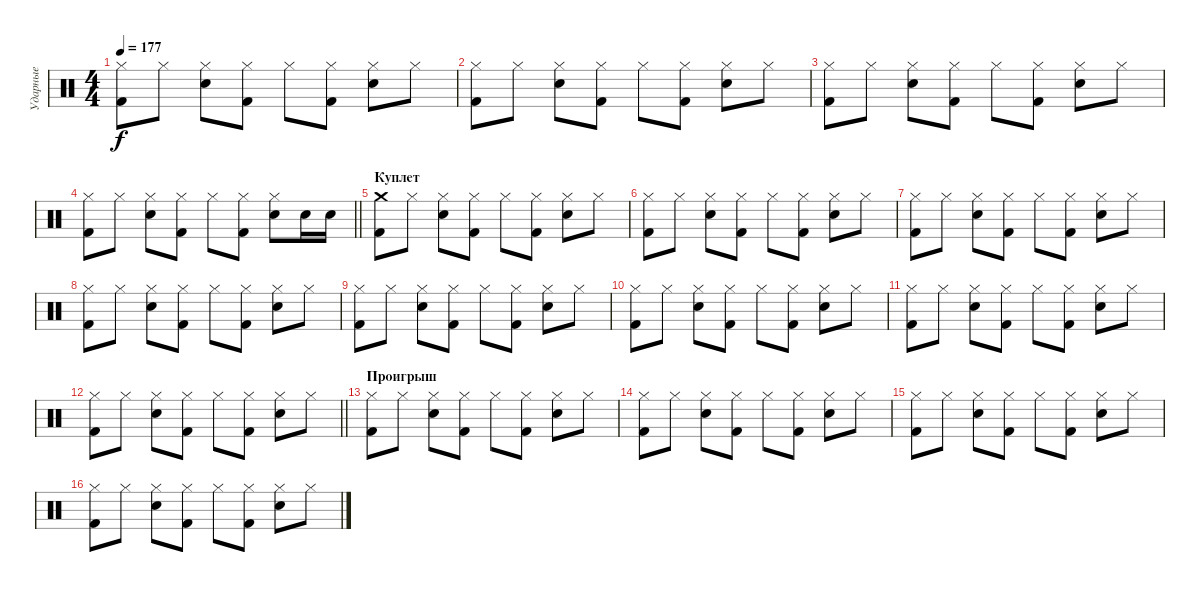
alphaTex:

\track ("Ударные" "Ударные") {instrument percussion}
\staff {score}
\articulation defaults
\ts (4 4)
\tempo 177
\clef neutral
\ks c
("Hi-Hat (closed)" "Kick (hit) 2").8{dy f} "Hi-Hat (closed)".8 ("Hi-Hat (closed)" "Snare (hit) 2").8 ("Hi-Hat (closed)" "Kick (hit) 2").8 "Hi-Hat (closed)".8 ("Hi-Hat (closed)" "Kick (hit) 2").8 ("Hi-Hat (closed)" "Snare (hit) 2").8 "Hi-Hat (closed)".8 |
("Hi-Hat (closed)" "Kick (hit) 2").8 "Hi-Hat (closed)".8 ("Hi-Hat (closed)" "Snare (hit) 2").8 ("Hi-Hat (closed)" "Kick (hit) 2").8 "Hi-Hat (closed)".8 ("Hi-Hat (closed)" "Kick (hit) 2").8 ("Hi-Hat (closed)" "Snare (hit) 2").8 "Hi-Hat (closed)".8 |
("Hi-Hat (closed)" "Kick (hit) 2").8 "Hi-Hat (closed)".8 ("Hi-Hat (closed)" "Snare (hit) 2").8 ("Hi-Hat (closed)" "Kick (hit) 2").8 "Hi-Hat (closed)".8 ("Hi-Hat (closed)" "Kick (hit) 2").8 ("Hi-Hat (closed)" "Snare (hit) 2").8 "Hi-Hat (closed)".8 |
\barLineRight lightlight
("Hi-Hat (closed)" "Kick (hit) 2").8 "Hi-Hat (closed)".8 ("Hi-Hat (closed)" "Snare (hit) 2").8 ("Hi-Hat (closed)" "Kick (hit) 2").8 "Hi-Hat (closed)".8 ("Hi-Hat (closed)" "Kick (hit) 2").8 ("Hi-Hat (closed)" "Snare (hit) 2").8 "Snare (hit) 2".16 "Snare (hit) 2".16 |
\section ("" "Куплет")
("Crash medium (hit)" "Kick (hit) 2").8 "Hi-Hat (closed)".8 ("Hi-Hat (closed)" "Snare (hit) 2").8 ("Hi-Hat (closed)" "Kick (hit) 2").8 "Hi-Hat (closed)".8 ("Hi-Hat (closed)" "Kick (hit) 2").8 ("Hi-Hat (closed)" "Snare (hit) 2").8 "Hi-Hat (closed)".8 |
("Hi-Hat (closed)" "Kick (hit) 2").8 "Hi-Hat (closed)".8 ("Hi-Hat (closed)" "Snare (hit) 2").8 ("Hi-Hat (closed)" "Kick (hit) 2").8 "Hi-Hat (closed)".8 ("Hi-Hat (closed)" "Kick (hit) 2").8 ("Hi-Hat (closed)" "Snare (hit) 2").8 "Hi-Hat (closed)".8 |
("Hi-Hat (closed)" "Kick (hit) 2").8 "Hi-Hat (closed)".8 ("Hi-Hat (closed)" "Snare (hit) 2").8 ("Hi-Hat (closed)" "Kick (hit) 2").8 "Hi-Hat (closed)".8 ("Hi-Hat (closed)" "Kick (hit) 2").8 ("Hi-Hat (closed)" "Snare (hit) 2").8 "Hi-Hat (closed)".8 |
("Hi-Hat (closed)" "Kick (hit) 2").8 "Hi-Hat (closed)".8 ("Hi-Hat (closed)" "Snare (hit) 2").8 ("Hi-Hat (closed)" "Kick (hit) 2").8 "Hi-Hat (closed)".8 ("Hi-Hat (closed)" "Kick (hit) 2").8 ("Hi-Hat (closed)" "Snare (hit) 2").8 "Hi-Hat (closed)".8 |
("Hi-Hat (closed)" "Kick (hit) 2").8 "Hi-Hat (closed)".8 ("Hi-Hat (closed)" "Snare (hit) 2").8 ("Hi-Hat (closed)" "Kick (hit) 2").8 "Hi-Hat (closed)".8 ("Hi-Hat (closed)" "Kick (hit) 2").8 ("Hi-Hat (closed)" "Snare (hit) 2").8 "Hi-Hat (closed)".8 |
("Hi-Hat (closed)" "Kick (hit) 2").8 "Hi-Hat (closed)".8 ("Hi-Hat (closed)" "Snare (hit) 2").8 ("Hi-Hat (closed)" "Kick (hit) 2").8 "Hi-Hat (closed)".8 ("Hi-Hat (closed)" "Kick (hit) 2").8 ("Hi-Hat (closed)" "Snare (hit) 2").8 "Hi-Hat (closed)".8 |
("Hi-Hat (closed)" "Kick (hit) 2").8 "Hi-Hat (closed)".8 ("Hi-Hat (closed)" "Snare (hit) 2").8 ("Hi-Hat (closed)" "Kick (hit) 2").8 "Hi-Hat (closed)".8 ("Hi-Hat (closed)" "Kick (hit) 2").8 ("Hi-Hat (closed)" "Snare (hit) 2").8 "Hi-Hat (closed)".8 |
\barLineRight lightlight
("Hi-Hat (closed)" "Kick (hit) 2").8 "Hi-Hat (closed)".8 ("Hi-Hat (closed)" "Snare (hit) 2").8 ("Hi-Hat (closed)" "Kick (hit) 2").8 "Hi-Hat (closed)".8 ("Hi-Hat (closed)" "Kick (hit) 2").8 ("Hi-Hat (closed)" "Snare (hit) 2").8 "Hi-Hat (closed)".8 |
\section ("" "Проигрыш")
("Hi-Hat (closed)" "Kick (hit) 2").8 "Hi-Hat (closed)".8 ("Hi-Hat (closed)" "Snare (hit) 2").8 ("Hi-Hat (closed)" "Kick (hit) 2").8 "Hi-Hat (closed)".8 ("Hi-Hat (closed)" "Kick (hit) 2").8 ("Hi-Hat (closed)" "Snare (hit) 2").8 "Hi-Hat (closed)".8 |
("Hi-Hat (closed)" "Kick (hit) 2").8 "Hi-Hat (closed)".8 ("Hi-Hat (closed)" "Snare (hit) 2").8 ("Hi-Hat (closed)" "Kick (hit) 2").8 "Hi-Hat (closed)".8 ("Hi-Hat (closed)" "Kick (hit) 2").8 ("Hi-Hat (closed)" "Snare (hit) 2").8 "Hi-Hat (closed)".8 |
("Hi-Hat (closed)" "Kick (hit) 2").8 "Hi-Hat (closed)".8 ("Hi-Hat (closed)" "Snare (hit) 2").8 ("Hi-Hat (closed)" "Kick (hit) 2").8 "Hi-Hat (closed)".8 ("Hi-Hat (closed)" "Kick (hit) 2").8 ("Hi-Hat (closed)" "Snare (hit) 2").8 "Hi-Hat (closed)".8 |
("Hi-Hat (closed)" "Kick (hit) 2").8 "Hi-Hat (closed)".8 ("Hi-Hat (closed)" "Snare (hit) 2").8 ("Hi-Hat (closed)" "Kick (hit) 2").8 "Hi-Hat (closed)".8 ("Hi-Hat (closed)" "Kick (hit) 2").8 ("Hi-Hat (closed)" "Snare (hit) 2").8 "Hi-Hat (closed)".8
